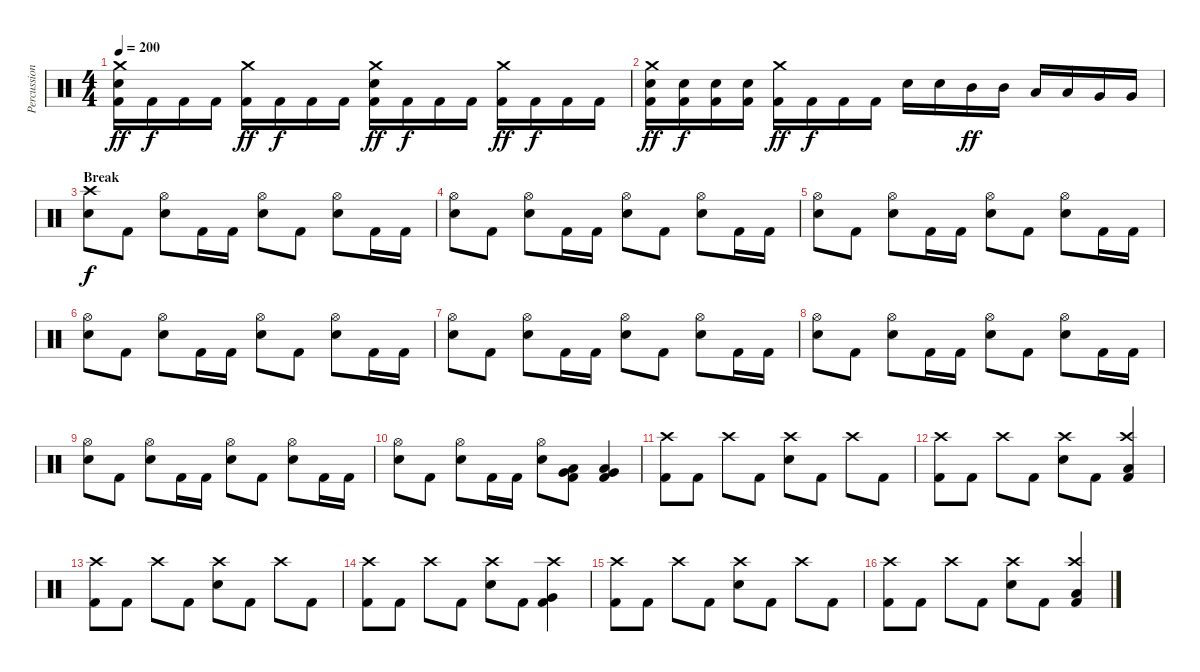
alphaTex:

\track ("Percussions" "Percussion") {instrument percussion}
\staff {score}
\articulation defaults
\ts (4 4)
\tempo 200
\clef neutral
\ks c
("Crash medium (hit)" "Electric Snare (hit)" "Kick (hit) 2").16{dy ff} "Kick (hit) 2".16{dy f} "Kick (hit) 2".16 "Kick (hit) 2".16 ("Crash medium (hit)" "Kick (hit) 2").16{dy ff} "Kick (hit) 2".16{dy f} "Kick (hit) 2".16 "Kick (hit) 2".16 ("Crash medium (hit)" "Electric Snare (hit)" "Kick (hit) 2").16{dy ff} "Kick (hit) 2".16{dy f} "Kick (hit) 2".16 "Kick (hit) 2".16 ("Crash medium (hit)" "Kick (hit) 2").16{dy ff} "Kick (hit) 2".16{dy f} "Kick (hit) 2".16 "Kick (hit) 2".16 |
("Crash medium (hit)" "Electric Snare (hit)" "Kick (hit) 2").16{dy ff} ("Electric Snare (hit)" "Kick (hit) 2").16{dy f} ("Electric Snare (hit)" "Kick (hit) 2").16 ("Electric Snare (hit)" "Kick (hit) 2").16 ("Crash medium (hit)" "Kick (hit) 2").16{dy ff} "Kick (hit) 2".16{dy f} "Kick (hit) 2".16 "Kick (hit) 2".16 "Electric Snare (hit)".16 "Electric Snare (hit)".16 "Mid Tom (hit)".16{dy ff} "Mid Tom (hit)".16 "Low Tom (hit)".16 "Low Tom (hit)".16 "Very Low Tom (hit)".16 "Very Low Tom (hit)".16 |
\section ("" "Break")
("Crash high (hit)" "Electric Snare (hit)").8{dy f} "Kick (hit) 2".8 ("Hi-Hat (open)" "Electric Snare (hit)").8 "Kick (hit) 2".16 "Kick (hit) 2".16 ("Hi-Hat (open)" "Electric Snare (hit)").8 "Kick (hit) 2".8 ("Hi-Hat (open)" "Electric Snare (hit)").8 "Kick (hit) 2".16 "Kick (hit) 2".16 |
("Hi-Hat (open)" "Electric Snare (hit)").8 "Kick (hit) 2".8 ("Hi-Hat (open)" "Electric Snare (hit)").8 "Kick (hit) 2".16 "Kick (hit) 2".16 ("Hi-Hat (open)" "Electric Snare (hit)").8 "Kick (hit) 2".8 ("Hi-Hat (open)" "Electric Snare (hit)").8 "Kick (hit) 2".16 "Kick (hit) 2".16 |
("Hi-Hat (open)" "Electric Snare (hit)").8 "Kick (hit) 2".8 ("Hi-Hat (open)" "Electric Snare (hit)").8 "Kick (hit) 2".16 "Kick (hit) 2".16 ("Hi-Hat (open)" "Electric Snare (hit)").8 "Kick (hit) 2".8 ("Hi-Hat (open)" "Electric Snare (hit)").8 "Kick (hit) 2".16 "Kick (hit) 2".16 |
("Hi-Hat (open)" "Electric Snare (hit)").8 "Kick (hit) 2".8 ("Hi-Hat (open)" "Electric Snare (hit)").8 "Kick (hit) 2".16 "Kick (hit) 2".16 ("Hi-Hat (open)" "Electric Snare (hit)").8 "Kick (hit) 2".8 ("Hi-Hat (open)" "Electric Snare (hit)").8 "Kick (hit) 2".16 "Kick (hit) 2".16 |
("Hi-Hat (open)" "Electric Snare (hit)").8 "Kick (hit) 2".8 ("Hi-Hat (open)" "Electric Snare (hit)").8 "Kick (hit) 2".16 "Kick (hit) 2".16 ("Hi-Hat (open)" "Electric Snare (hit)").8 "Kick (hit) 2".8 ("Hi-Hat (open)" "Electric Snare (hit)").8 "Kick (hit) 2".16 "Kick (hit) 2".16 |
("Hi-Hat (open)" "Electric Snare (hit)").8 "Kick (hit) 2".8 ("Hi-Hat (open)" "Electric Snare (hit)").8 "Kick (hit) 2".16 "Kick (hit) 2".16 ("Hi-Hat (open)" "Electric Snare (hit)").8 "Kick (hit) 2".8 ("Hi-Hat (open)" "Electric Snare (hit)").8 "Kick (hit) 2".16 "Kick (hit) 2".16 |
("Hi-Hat (open)" "Electric Snare (hit)").8 "Kick (hit) 2".8 ("Hi-Hat (open)" "Electric Snare (hit)").8 "Kick (hit) 2".16 "Kick (hit) 2".16 ("Hi-Hat (open)" "Electric Snare (hit)").8 "Kick (hit) 2".8 ("Hi-Hat (open)" "Electric Snare (hit)").8 "Kick (hit) 2".16 "Kick (hit) 2".16 |
("Hi-Hat (open)" "Electric Snare (hit)").8 "Kick (hit) 2".8 ("Hi-Hat (open)" "Electric Snare (hit)").8 "Kick (hit) 2".16 "Kick (hit) 2".16 ("Hi-Hat (open)" "Electric Snare (hit)").8 ("Very Low Tom (hit)" "Low Floor Tom (hit)" "Kick (hit) 2").8 ("Very Low Tom (hit)" "Low Floor Tom (hit)" "Kick (hit) 2").4 |
("Crash high (hit)" "Kick (hit) 2").8 "Kick (hit) 2".8 "Crash high (hit)".8 "Kick (hit) 2".8 ("Crash high (hit)" "Electric Snare (hit)").8 "Kick (hit) 2".8 "Crash high (hit)".8 "Kick (hit) 2".8 |
("Crash high (hit)" "Kick (hit) 2").8 "Kick (hit) 2".8 "Crash high (hit)".8 "Kick (hit) 2".8 ("Crash high (hit)" "Electric Snare (hit)").8 "Kick (hit) 2".8 ("Crash high (hit)" "Low Floor Tom (hit)" "Kick (hit) 2").4 |
("Crash high (hit)" "Kick (hit) 2").8 "Kick (hit) 2".8 "Crash high (hit)".8 "Kick (hit) 2".8 ("Crash high (hit)" "Electric Snare (hit)").8 "Kick (hit) 2".8 "Crash high (hit)".8 "Kick (hit) 2".8 |
("Crash high (hit)" "Kick (hit) 2").8 "Kick (hit) 2".8 "Crash high (hit)".8 "Kick (hit) 2".8 ("Crash high (hit)" "Electric Snare (hit)").8 "Kick (hit) 2".8 ("Crash high (hit)" "Very Low Tom (hit)" "Kick (hit) 2").4 |
("Crash high (hit)" "Kick (hit) 2").8 "Kick (hit) 2".8 "Crash high (hit)".8 "Kick (hit) 2".8 ("Crash high (hit)" "Electric Snare (hit)").8 "Kick (hit) 2".8 "Crash high (hit)".8 "Kick (hit) 2".8 |
("Crash high (hit)" "Kick (hit) 2").8 "Kick (hit) 2".8 "Crash high (hit)".8 "Kick (hit) 2".8 ("Crash high (hit)" "Electric Snare (hit)").8 "Kick (hit) 2".8 ("Crash high (hit)" "Low Floor Tom (hit)" "Kick (hit) 2").4
